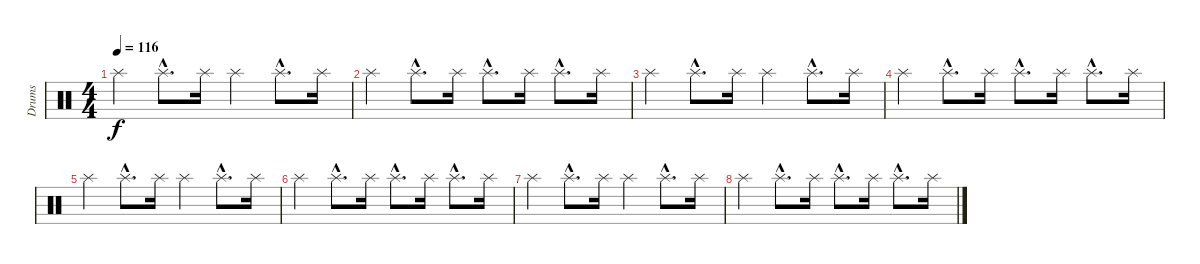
\track ("Drums" "Drums") {instrument percussion}
\staff {score}
\articulation defaults
\ts (4 4)
\tempo 116
\clef neutral
\ks c "Splash (hit)".4{dy f} "Splash (hit)"{hac}.8{d} "Splash (hit)".16 "Splash (hit)".4 "Splash (hit)"{hac}.8{d} "Splash (hit)".16
|
"Splash (hit)".4 "Splash (hit)"{hac}.8{d} "Splash (hit)".16 "Splash (hit)"{hac}.8{d} "Splash (hit)".16 "Splash (hit)"{hac}.8{d} "Splash (hit)".16 |
"Splash (hit)".4 "Splash (hit)"{hac}.8{d} "Splash (hit)".16 "Splash (hit)".4 "Splash (hit)"{hac}.8{d} "Splash (hit)".16 |
"Splash (hit)".4 "Splash (hit)"{hac}.8{d} "Splash (hit)".16 "Splash (hit)"{hac}.8{d} "Splash (hit)".16 "Splash (hit)"{hac}.8{d} "Splash (hit)".16 |
"Splash (hit)".4 "Splash (hit)"{hac}.8{d} "Splash (hit)".16 "Splash (hit)".4 "Splash (hit)"{hac}.8{d} "Splash (hit)".16 |
"Splash (hit)".4 "Splash (hit)"{hac}.8{d} "Splash (hit)".16 "Splash (hit)"{hac}.8{d} "Splash (hit)".16 "Splash (hit)"{hac}.8{d} "Splash (hit)".16 |
"Splash (hit)".4 "Splash (hit)"{hac}.8{d} "Splash (hit)".16 "Splash (hit)".4 "Splash (hit)"{hac}.8{d} "Splash (hit)".16 |
"Splash (hit)".4 "Splash (hit)"{hac}.8{d} "Splash (hit)".16 "Splash (hit)"{hac}.8{d} "Splash (hit)".16 "Splash (hit)"{hac}.8{d} "Splash (hit)".16
